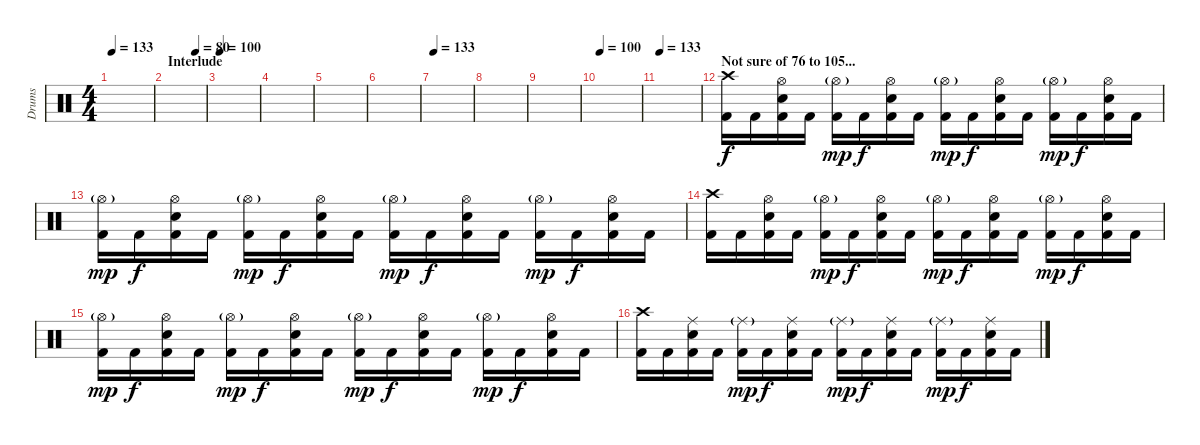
\track ("Drums" "Drums") {instrument percussion}
\staff {score}
\articulation defaults
\ts (4 4)
\tempo 133
\clef neutral
\ks c
|
\section ("" "Interlude")
\tempo (80 0.75)
|
\tempo 100
|
|
|
|
\tempo 133
|
|
|
\tempo 100
|
\tempo 133
|
\section ("" "Not sure of 76 to 105...")
("Crash high (hit)" "Kick (hit) 2").16 "Kick (hit) 2".16 ("Hi-Hat (open)" "Electric Snare (hit)" "Kick (hit) 2").16 "Kick (hit) 2".16 ("Hi-Hat (open)"{g} "Kick (hit) 2").16{dy mp} "Kick (hit) 2".16{dy f} ("Hi-Hat (open)" "Electric Snare (hit)" "Kick (hit) 2").16 "Kick (hit) 2".16 ("Hi-Hat (open)"{g} "Kick (hit) 2").16{dy mp} "Kick (hit) 2".16{dy f} ("Hi-Hat (open)" "Electric Snare (hit)" "Kick (hit) 2").16 "Kick (hit) 2".16 ("Hi-Hat (open)"{g} "Kick (hit) 2").16{dy mp} "Kick (hit) 2".16{dy f} ("Hi-Hat (open)" "Electric Snare (hit)" "Kick (hit) 2").16 "Kick (hit) 2".16 |
("Hi-Hat (open)"{g} "Kick (hit) 2").16{dy mp} "Kick (hit) 2".16{dy f} ("Hi-Hat (open)" "Electric Snare (hit)" "Kick (hit) 2").16 "Kick (hit) 2".16 ("Hi-Hat (open)"{g} "Kick (hit) 2").16{dy mp} "Kick (hit) 2".16{dy f} ("Hi-Hat (open)" "Electric Snare (hit)" "Kick (hit) 2").16 "Kick (hit) 2".16 ("Hi-Hat (open)"{g} "Kick (hit) 2").16{dy mp} "Kick (hit) 2".16{dy f} ("Hi-Hat (open)" "Electric Snare (hit)" "Kick (hit) 2").16 "Kick (hit) 2".16 ("Hi-Hat (open)"{g} "Kick (hit) 2").16{dy mp} "Kick (hit) 2".16{dy f} ("Hi-Hat (open)" "Electric Snare (hit)" "Kick (hit) 2").16 "Kick (hit) 2".16 |
("Crash high (hit)" "Kick (hit) 2").16 "Kick (hit) 2".16 ("Hi-Hat (open)" "Electric Snare (hit)" "Kick (hit) 2").16 "Kick (hit) 2".16 ("Hi-Hat (open)"{g} "Kick (hit) 2").16{dy mp} "Kick (hit) 2".16{dy f} ("Hi-Hat (open)" "Electric Snare (hit)" "Kick (hit) 2").16 "Kick (hit) 2".16 ("Hi-Hat (open)"{g} "Kick (hit) 2").16{dy mp} "Kick (hit) 2".16{dy f} ("Hi-Hat (open)" "Electric Snare (hit)" "Kick (hit) 2").16 "Kick (hit) 2".16 ("Hi-Hat (open)"{g} "Kick (hit) 2").16{dy mp} "Kick (hit) 2".16{dy f} ("Hi-Hat (open)" "Electric Snare (hit)" "Kick (hit) 2").16 "Kick (hit) 2".16 |
("Hi-Hat (open)"{g} "Kick (hit) 2").16{dy mp} "Kick (hit) 2".16{dy f} ("Hi-Hat (open)" "Electric Snare (hit)" "Kick (hit) 2").16 "Kick (hit) 2".16 ("Hi-Hat (open)"{g} "Kick (hit) 2").16{dy mp} "Kick (hit) 2".16{dy f} ("Hi-Hat (open)" "Electric Snare (hit)" "Kick (hit) 2").16 "Kick (hit) 2".16 ("Hi-Hat (open)"{g} "Kick (hit) 2").16{dy mp} "Kick (hit) 2".16{dy f} ("Hi-Hat (open)" "Electric Snare (hit)" "Kick (hit) 2").16 "Kick (hit) 2".16 ("Hi-Hat (open)"{g} "Kick (hit) 2").16{dy mp} "Kick (hit) 2".16{dy f} ("Hi-Hat (open)" "Electric Snare (hit)" "Kick (hit) 2").16 "Kick (hit) 2".16 |
("Crash high (hit)" "Kick (hit) 2").16 "Kick (hit) 2".16 ("Ride (middle)" "Electric Snare (hit)" "Kick (hit) 2").16 "Kick (hit) 2".16 ("Ride (middle)"{g} "Kick (hit) 2").16{dy mp} "Kick (hit) 2".16{dy f} ("Ride (middle)" "Electric Snare (hit)" "Kick (hit) 2").16 "Kick (hit) 2".16 ("Ride (middle)"{g} "Kick (hit) 2").16{dy mp} "Kick (hit) 2".16{dy f} ("Ride (middle)" "Electric Snare (hit)" "Kick (hit) 2").16 "Kick (hit) 2".16 ("Ride (middle)"{g} "Kick (hit) 2").16{dy mp} "Kick (hit) 2".16{dy f} ("Ride (middle)" "Electric Snare (hit)" "Kick (hit) 2").16 "Kick (hit) 2".16
